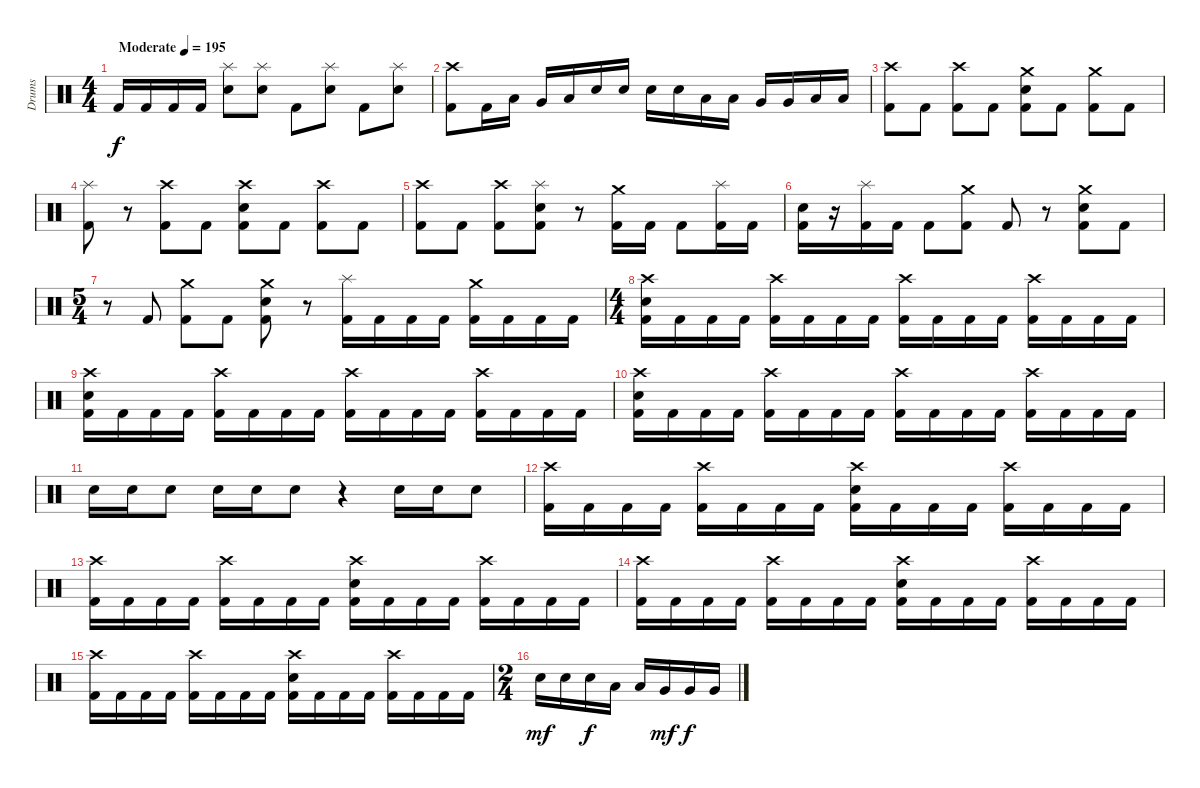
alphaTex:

\track ("Drums" "Drums") {instrument percussion}
\staff {score}
\articulation defaults
\ts (4 4)
\tempo (195 "Moderate")
\clef neutral
\ks c "Kick (hit) 2".16{dy f} "Kick (hit) 2".16 "Kick (hit) 2".16 "Kick (hit) 2".16
("Splash (hit)" "Electric Snare (hit)").8 ("Splash (hit)" "Electric Snare (hit)").8 "Kick (hit) 2".8 ("Splash (hit)" "Electric Snare (hit)").8 "Kick (hit) 2".8 ("Splash (hit)" "Electric Snare (hit)").8 |
("Crash high (hit)" "Kick (hit) 2").8 "Kick (hit) 2".16 "Low Tom (hit)".16 "Very Low Tom (hit)".16 "Low Floor Tom (hit)".16 "Electric Snare (hit)".16 "Electric Snare (hit)".16 "Electric Snare (hit)".16 "Electric Snare (hit)".16 "Low Tom (hit)".16 "Low Tom (hit)".16 "Very Low Tom (hit)".16 "Very Low Tom (hit)".16 "Low Floor Tom (hit)".16 "Low Floor Tom (hit)".16 |
("Crash high (hit)" "Kick (hit) 2").8 "Kick (hit) 2".8 ("Crash high (hit)" "Kick (hit) 2").8 "Kick (hit) 2".8 ("Crash medium (hit)" "Electric Snare (hit)" "Kick (hit) 2").8 "Kick (hit) 2".8 ("Crash medium (hit)" "Kick (hit) 2").8 "Kick (hit) 2".8 |
("Splash (hit)" "Kick (hit) 2").8 r.8 ("Crash high (hit)" "Kick (hit) 2").8 "Kick (hit) 2".8 ("Crash high (hit)" "Electric Snare (hit)" "Kick (hit) 2").8 "Kick (hit) 2".8 ("Crash high (hit)" "Kick (hit) 2").8 "Kick (hit) 2".8 |
("Crash high (hit)" "Kick (hit) 2").8 "Kick (hit) 2".8 ("Crash high (hit)" "Kick (hit) 2").8 ("Splash (hit)" "Electric Snare (hit)" "Kick (hit) 2").8 r.8 ("Crash medium (hit)" "Kick (hit) 2").16 "Kick (hit) 2".16 "Kick (hit) 2".8 ("Splash (hit)" "Kick (hit) 2").16 "Kick (hit) 2".16 |
("Electric Snare (hit)" "Kick (hit) 2").16 r.16 ("Splash (hit)" "Kick (hit) 2").16 "Kick (hit) 2".16 "Kick (hit) 2".8 ("Crash medium (hit)" "Kick (hit) 2").8 "Kick (hit) 2".8 r.8 ("Crash medium (hit)" "Electric Snare (hit)" "Kick (hit) 2").8 "Kick (hit) 2".8 |
\ts (5 4)
r.8 "Kick (hit) 2".8 ("Crash medium (hit)" "Kick (hit) 2").8 "Kick (hit) 2".8 ("Crash medium (hit)" "Electric Snare (hit)" "Kick (hit) 2").8 r.8 ("Splash (hit)" "Kick (hit) 2").16 "Kick (hit) 2".16 "Kick (hit) 2".16 "Kick (hit) 2".16 ("Crash medium (hit)" "Kick (hit) 2").16 "Kick (hit) 2".16 "Kick (hit) 2".16 "Kick (hit) 2".16 |
\ts (4 4)
("Crash high (hit)" "Electric Snare (hit)" "Kick (hit) 2").16 "Kick (hit) 2".16 "Kick (hit) 2".16 "Kick (hit) 2".16 ("Crash high (hit)" "Kick (hit) 2").16 "Kick (hit) 2".16 "Kick (hit) 2".16 "Kick (hit) 2".16 ("Crash high (hit)" "Kick (hit) 2").16 "Kick (hit) 2".16 "Kick (hit) 2".16 "Kick (hit) 2".16 ("Crash high (hit)" "Kick (hit) 2").16 "Kick (hit) 2".16 "Kick (hit) 2".16 "Kick (hit) 2".16 |
("Crash high (hit)" "Electric Snare (hit)" "Kick (hit) 2").16 "Kick (hit) 2".16 "Kick (hit) 2".16 "Kick (hit) 2".16 ("Crash high (hit)" "Kick (hit) 2").16 "Kick (hit) 2".16 "Kick (hit) 2".16 "Kick (hit) 2".16 ("Crash high (hit)" "Kick (hit) 2").16 "Kick (hit) 2".16 "Kick (hit) 2".16 "Kick (hit) 2".16 ("Crash high (hit)" "Kick (hit) 2").16 "Kick (hit) 2".16 "Kick (hit) 2".16 "Kick (hit) 2".16 |
("Crash high (hit)" "Electric Snare (hit)" "Kick (hit) 2").16 "Kick (hit) 2".16 "Kick (hit) 2".16 "Kick (hit) 2".16 ("Crash high (hit)" "Kick (hit) 2").16 "Kick (hit) 2".16 "Kick (hit) 2".16 "Kick (hit) 2".16 ("Crash high (hit)" "Kick (hit) 2").16 "Kick (hit) 2".16 "Kick (hit) 2".16 "Kick (hit) 2".16 ("Crash high (hit)" "Kick (hit) 2").16 "Kick (hit) 2".16 "Kick (hit) 2".16 "Kick (hit) 2".16 |
"Electric Snare (hit)".16 "Electric Snare (hit)".16 "Electric Snare (hit)".8 "Electric Snare (hit)".16 "Electric Snare (hit)".16 "Electric Snare (hit)".8 r.4 "Electric Snare (hit)".16 "Electric Snare (hit)".16 "Electric Snare (hit)".8 |
("Crash high (hit)" "Kick (hit) 2").16 "Kick (hit) 2".16 "Kick (hit) 2".16 "Kick (hit) 2".16 ("Crash high (hit)" "Kick (hit) 2").16 "Kick (hit) 2".16 "Kick (hit) 2".16 "Kick (hit) 2".16 ("Crash high (hit)" "Electric Snare (hit)" "Kick (hit) 2").16 "Kick (hit) 2".16 "Kick (hit) 2".16 "Kick (hit) 2".16 ("Crash high (hit)" "Kick (hit) 2").16 "Kick (hit) 2".16 "Kick (hit) 2".16 "Kick (hit) 2".16 |
("Crash high (hit)" "Kick (hit) 2").16 "Kick (hit) 2".16 "Kick (hit) 2".16 "Kick (hit) 2".16 ("Crash high (hit)" "Kick (hit) 2").16 "Kick (hit) 2".16 "Kick (hit) 2".16 "Kick (hit) 2".16 ("Crash high (hit)" "Electric Snare (hit)" "Kick (hit) 2").16 "Kick (hit) 2".16 "Kick (hit) 2".16 "Kick (hit) 2".16 ("Crash high (hit)" "Kick (hit) 2").16 "Kick (hit) 2".16 "Kick (hit) 2".16 "Kick (hit) 2".16 |
("Crash high (hit)" "Kick (hit) 2").16 "Kick (hit) 2".16 "Kick (hit) 2".16 "Kick (hit) 2".16 ("Crash high (hit)" "Kick (hit) 2").16 "Kick (hit) 2".16 "Kick (hit) 2".16 "Kick (hit) 2".16 ("Crash high (hit)" "Electric Snare (hit)" "Kick (hit) 2").16 "Kick (hit) 2".16 "Kick (hit) 2".16 "Kick (hit) 2".16 ("Crash high (hit)" "Kick (hit) 2").16 "Kick (hit) 2".16 "Kick (hit) 2".16 "Kick (hit) 2".16 |
("Crash high (hit)" "Kick (hit) 2").16 "Kick (hit) 2".16 "Kick (hit) 2".16 "Kick (hit) 2".16 ("Crash high (hit)" "Kick (hit) 2").16 "Kick (hit) 2".16 "Kick (hit) 2".16 "Kick (hit) 2".16 ("Crash high (hit)" "Electric Snare (hit)" "Kick (hit) 2").16 "Kick (hit) 2".16 "Kick (hit) 2".16 "Kick (hit) 2".16 ("Crash high (hit)" "Kick (hit) 2").16 "Kick (hit) 2".16 "Kick (hit) 2".16 "Kick (hit) 2".16 |
\ts (2 4)
"Electric Snare (hit)".16{dy mf} "Electric Snare (hit)".16 "Electric Snare (hit)".16{dy f} "Low Tom (hit)".16 "Low Tom (hit)".16 "Very Low Tom (hit)".16{dy mf} "Very Low Tom (hit)".16{dy f} "Very Low Tom (hit)".16
